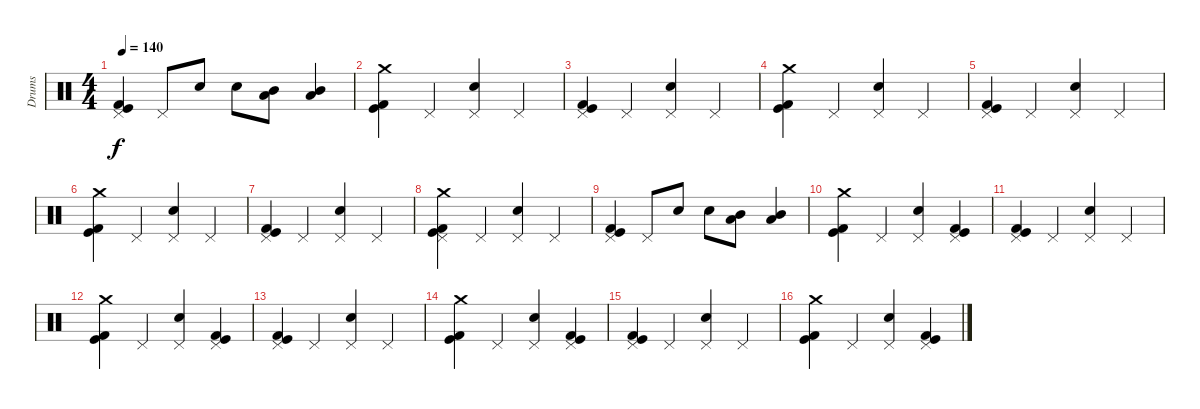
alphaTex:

\track ("Drums" "Drums") {instrument percussion}
\staff {score}
\articulation defaults
\ts (4 4)
\tempo 140
\clef neutral
\ks c
("Pedal Hi-Hat (hit)" "Kick (hit) 2" "Kick (hit)").4{dy f} "Pedal Hi-Hat (hit)".8 "Snare (hit) 2".8 "Snare (hit) 2".8 ("Low Tom (hit)" "Mid Tom (hit)").8 ("Low Tom (hit)" "Mid Tom (hit)").4 |
("Crash medium (hit)" "Kick (hit) 2" "Kick (hit)").4 "Pedal Hi-Hat (hit)".4 ("Pedal Hi-Hat (hit)" "Snare (hit) 2").4 "Pedal Hi-Hat (hit)".4 |
("Pedal Hi-Hat (hit)" "Kick (hit) 2" "Kick (hit)").4 "Pedal Hi-Hat (hit)".4 ("Pedal Hi-Hat (hit)" "Snare (hit) 2").4 "Pedal Hi-Hat (hit)".4 |
("Crash medium (hit)" "Kick (hit) 2" "Kick (hit)").4 "Pedal Hi-Hat (hit)".4 ("Pedal Hi-Hat (hit)" "Snare (hit) 2").4 "Pedal Hi-Hat (hit)".4 |
("Pedal Hi-Hat (hit)" "Kick (hit) 2" "Kick (hit)").4 "Pedal Hi-Hat (hit)".4 ("Pedal Hi-Hat (hit)" "Snare (hit) 2").4 "Pedal Hi-Hat (hit)".4 |
("Crash medium (hit)" "Kick (hit) 2" "Kick (hit)").4 "Pedal Hi-Hat (hit)".4 ("Pedal Hi-Hat (hit)" "Snare (hit) 2").4 "Pedal Hi-Hat (hit)".4 |
("Pedal Hi-Hat (hit)" "Kick (hit) 2" "Kick (hit)").4 "Pedal Hi-Hat (hit)".4 ("Pedal Hi-Hat (hit)" "Snare (hit) 2").4 "Pedal Hi-Hat (hit)".4 |
("Crash medium (hit)" "Kick (hit) 2" "Kick (hit)" "Pedal Hi-Hat (hit)").4 "Pedal Hi-Hat (hit)".4 ("Pedal Hi-Hat (hit)" "Snare (hit) 2").4 "Pedal Hi-Hat (hit)".4 |
("Pedal Hi-Hat (hit)" "Kick (hit) 2" "Kick (hit)").4 "Pedal Hi-Hat (hit)".8 "Snare (hit) 2".8 "Snare (hit) 2".8 ("Low Tom (hit)" "Mid Tom (hit)").8 ("Low Tom (hit)" "Mid Tom (hit)").4 |
("Crash medium (hit)" "Kick (hit) 2" "Kick (hit)").4 "Pedal Hi-Hat (hit)".4 ("Pedal Hi-Hat (hit)" "Snare (hit) 2").4 ("Pedal Hi-Hat (hit)" "Kick (hit) 2" "Kick (hit)").4 |
("Pedal Hi-Hat (hit)" "Kick (hit) 2" "Kick (hit)").4 "Pedal Hi-Hat (hit)".4 ("Pedal Hi-Hat (hit)" "Snare (hit) 2").4 "Pedal Hi-Hat (hit)".4 |
("Crash medium (hit)" "Kick (hit) 2" "Kick (hit)").4 "Pedal Hi-Hat (hit)".4 ("Pedal Hi-Hat (hit)" "Snare (hit) 2").4 ("Pedal Hi-Hat (hit)" "Kick (hit) 2" "Kick (hit)").4 |
("Pedal Hi-Hat (hit)" "Kick (hit) 2" "Kick (hit)").4 "Pedal Hi-Hat (hit)".4 ("Pedal Hi-Hat (hit)" "Snare (hit) 2").4 "Pedal Hi-Hat (hit)".4 |
("Crash medium (hit)" "Kick (hit) 2" "Kick (hit)").4 "Pedal Hi-Hat (hit)".4 ("Pedal Hi-Hat (hit)" "Snare (hit) 2").4 ("Pedal Hi-Hat (hit)" "Kick (hit) 2" "Kick (hit)").4 |
("Pedal Hi-Hat (hit)" "Kick (hit) 2" "Kick (hit)").4 "Pedal Hi-Hat (hit)".4 ("Pedal Hi-Hat (hit)" "Snare (hit) 2").4 "Pedal Hi-Hat (hit)".4 |
("Crash medium (hit)" "Kick (hit) 2" "Kick (hit)").4 "Pedal Hi-Hat (hit)".4 ("Pedal Hi-Hat (hit)" "Snare (hit) 2").4 ("Pedal Hi-Hat (hit)" "Kick (hit) 2" "Kick (hit)").4
